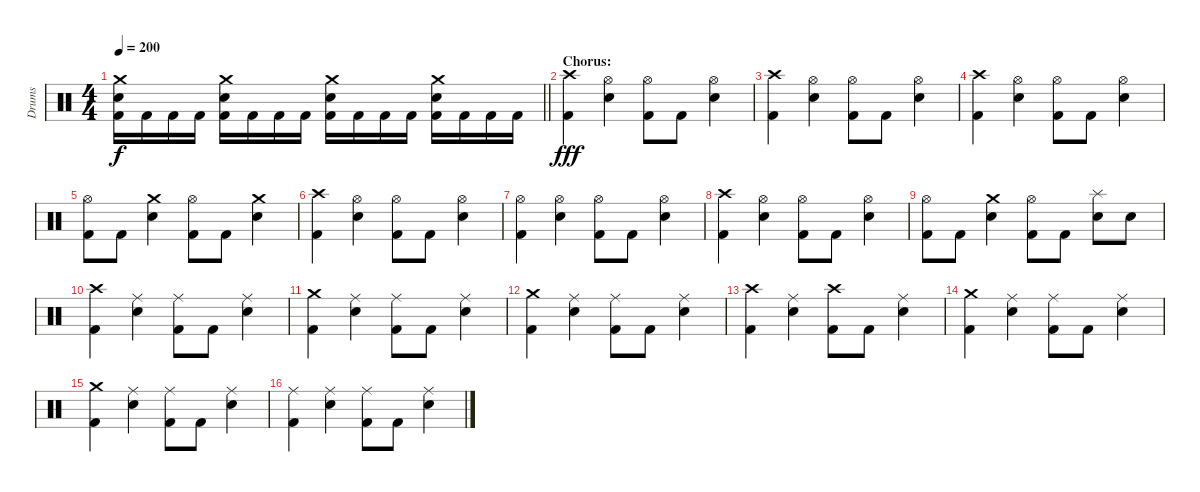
\track ("Drums" "Drums") {instrument percussion}
\staff {score}
\articulation defaults
\ts (4 4)
\tempo 200
\clef neutral
\barLineRight lightlight
\ks c
("Crash medium (hit)" "Electric Snare (hit)" "Kick (hit) 2").16{dy f} "Kick (hit) 2".16 "Kick (hit) 2".16 "Kick (hit) 2".16 ("Crash medium (hit)" "Electric Snare (hit)" "Kick (hit) 2").16 "Kick (hit) 2".16 "Kick (hit) 2".16 "Kick (hit) 2".16 ("Crash medium (hit)" "Electric Snare (hit)" "Kick (hit) 2").16 "Kick (hit) 2".16 "Kick (hit) 2".16 "Kick (hit) 2".16 ("Crash medium (hit)" "Electric Snare (hit)" "Kick (hit) 2").16 "Kick (hit) 2".16 "Kick (hit) 2".16 "Kick (hit) 2".16 |
\section ("" "Chorus:")
("Crash high (hit)" "Kick (hit) 2").4{dy fff} ("Hi-Hat (open)" "Electric Snare (hit)").4 ("Hi-Hat (open)" "Kick (hit) 2").8 "Kick (hit) 2".8 ("Hi-Hat (open)" "Electric Snare (hit)").4 |
("Crash high (hit)" "Kick (hit) 2").4 ("Hi-Hat (open)" "Electric Snare (hit)").4 ("Hi-Hat (open)" "Kick (hit) 2").8 "Kick (hit) 2".8 ("Hi-Hat (open)" "Electric Snare (hit)").4 |
("Crash high (hit)" "Kick (hit) 2").4 ("Hi-Hat (open)" "Electric Snare (hit)").4 ("Hi-Hat (open)" "Kick (hit) 2").8 "Kick (hit) 2".8 ("Hi-Hat (open)" "Electric Snare (hit)").4 |
("Hi-Hat (open)" "Kick (hit) 2").8 "Kick (hit) 2".8 ("Crash medium (hit)" "Electric Snare (hit)").4 ("Hi-Hat (open)" "Kick (hit) 2").8 "Kick (hit) 2".8 ("Crash medium (hit)" "Electric Snare (hit)").4 |
("Crash high (hit)" "Kick (hit) 2").4 ("Hi-Hat (open)" "Electric Snare (hit)").4 ("Hi-Hat (open)" "Kick (hit) 2").8 "Kick (hit) 2".8 ("Hi-Hat (open)" "Electric Snare (hit)").4 |
("Hi-Hat (open)" "Kick (hit) 2").4 ("Hi-Hat (open)" "Electric Snare (hit)").4 ("Hi-Hat (open)" "Kick (hit) 2").8 "Kick (hit) 2".8 ("Hi-Hat (open)" "Electric Snare (hit)").4 |
("Crash high (hit)" "Kick (hit) 2").4 ("Hi-Hat (open)" "Electric Snare (hit)").4 ("Hi-Hat (open)" "Kick (hit) 2").8 "Kick (hit) 2".8 ("Hi-Hat (open)" "Electric Snare (hit)").4 |
("Hi-Hat (open)" "Kick (hit) 2").8 "Kick (hit) 2".8 ("Crash medium (hit)" "Electric Snare (hit)").4 ("Hi-Hat (open)" "Kick (hit) 2").8 "Kick (hit) 2".8 ("Splash (hit)" "Electric Snare (hit)").8 "Electric Snare (hit)".8 |
("Crash high (hit)" "Kick (hit) 2").4 ("Ride (middle)" "Electric Snare (hit)").4 ("Ride (middle)" "Kick (hit) 2").8 "Kick (hit) 2".8 ("Ride (middle)" "Electric Snare (hit)").4 |
("Crash medium (hit)" "Kick (hit) 2").4 ("Ride (middle)" "Electric Snare (hit)").4 ("Ride (middle)" "Kick (hit) 2").8 "Kick (hit) 2".8 ("Ride (middle)" "Electric Snare (hit)").4 |
("Crash medium (hit)" "Kick (hit) 2").4 ("Ride (middle)" "Electric Snare (hit)").4 ("Ride (middle)" "Kick (hit) 2").8 "Kick (hit) 2".8 ("Ride (middle)" "Electric Snare (hit)").4 |
("Crash high (hit)" "Kick (hit) 2").4 ("Ride (middle)" "Electric Snare (hit)").4 ("Crash high (hit)" "Kick (hit) 2").8 "Kick (hit) 2".8 ("Ride (middle)" "Electric Snare (hit)").4 |
("Crash medium (hit)" "Kick (hit) 2").4 ("Ride (middle)" "Electric Snare (hit)").4 ("Ride (middle)" "Kick (hit) 2").8 "Kick (hit) 2".8 ("Ride (middle)" "Electric Snare (hit)").4 |
("Crash medium (hit)" "Kick (hit) 2").4 ("Ride (middle)" "Electric Snare (hit)").4 ("Ride (middle)" "Kick (hit) 2").8 "Kick (hit) 2".8 ("Ride (middle)" "Electric Snare (hit)").4 |
("Ride (middle)" "Kick (hit) 2").4 ("Ride (middle)" "Electric Snare (hit)").4 ("Ride (middle)" "Kick (hit) 2").8 "Kick (hit) 2".8 ("Ride (middle)" "Electric Snare (hit)").4
